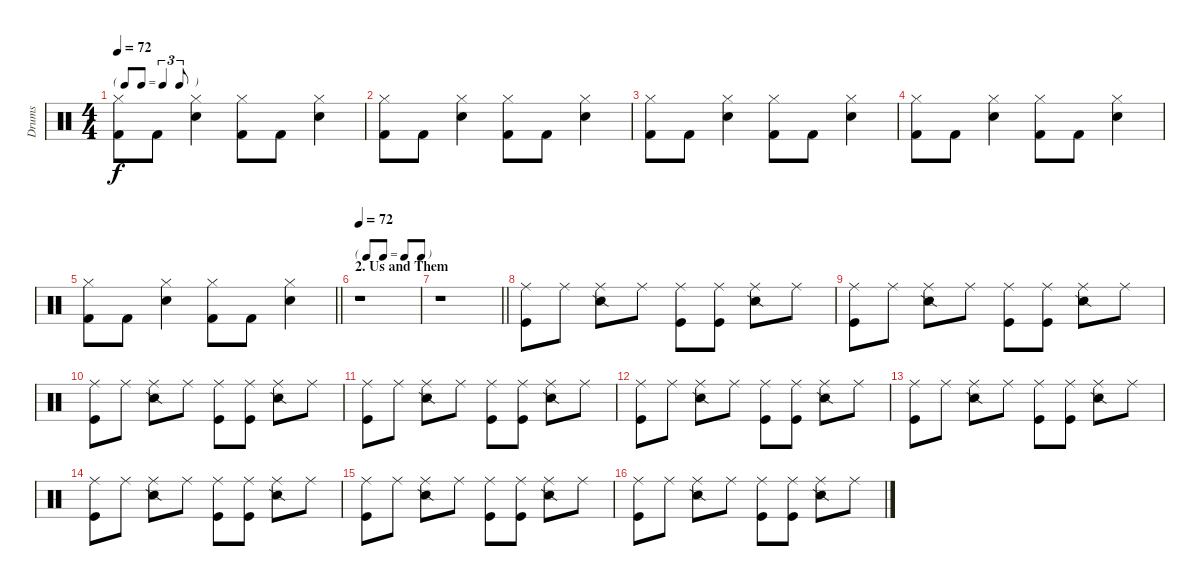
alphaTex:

\track ("Drums" "Drums") {instrument percussion}
\staff {score}
\articulation defaults
\ts (4 4)
\tf triplet8th
\tempo 72
\clef neutral
\ks c
("Hi-Hat (closed)" "Kick (hit) 2").8{dy f} "Kick (hit) 2".8 ("Hi-Hat (closed)" "Electric Snare (hit)").4 ("Hi-Hat (closed)" "Kick (hit) 2").8 "Kick (hit) 2".8 ("Hi-Hat (closed)" "Electric Snare (hit)").4 |
("Hi-Hat (closed)" "Kick (hit) 2").8{volume 0} "Kick (hit) 2".8 ("Hi-Hat (closed)" "Electric Snare (hit)").4 ("Hi-Hat (closed)" "Kick (hit) 2").8 "Kick (hit) 2".8 ("Hi-Hat (closed)" "Electric Snare (hit)").4 |
("Hi-Hat (closed)" "Kick (hit) 2").8 "Kick (hit) 2".8 ("Hi-Hat (closed)" "Electric Snare (hit)").4 ("Hi-Hat (closed)" "Kick (hit) 2").8 "Kick (hit) 2".8 ("Hi-Hat (closed)" "Electric Snare (hit)").4 |
("Hi-Hat (closed)" "Kick (hit) 2").8 "Kick (hit) 2".8 ("Hi-Hat (closed)" "Electric Snare (hit)").4 ("Hi-Hat (closed)" "Kick (hit) 2").8 "Kick (hit) 2".8 ("Hi-Hat (closed)" "Electric Snare (hit)").4 |
\barLineRight lightlight
("Hi-Hat (closed)" "Kick (hit) 2").8 "Kick (hit) 2".8 ("Hi-Hat (closed)" "Electric Snare (hit)").4 ("Hi-Hat (closed)" "Kick (hit) 2").8 "Kick (hit) 2".8 ("Hi-Hat (closed)" "Electric Snare (hit)").4 |
\tf none
\section ("" "2. Us and Them")
\tempo 72
r.1{volume 10} |
\barLineRight lightlight
r.1 |
("Ride (middle)" "Kick (hit)").8 "Ride (middle)".8 ("Ride (middle)" "Snare (side stick) 2").8 "Ride (middle)".8 ("Ride (middle)" "Kick (hit)").8 ("Ride (middle)" "Kick (hit)").8 ("Ride (middle)" "Snare (side stick) 2").8 "Ride (middle)".8 |
("Ride (middle)" "Kick (hit)").8 "Ride (middle)".8 ("Ride (middle)" "Snare (side stick) 2").8 "Ride (middle)".8 ("Ride (middle)" "Kick (hit)").8 ("Ride (middle)" "Kick (hit)").8 ("Ride (middle)" "Snare (side stick) 2").8 "Ride (middle)".8 |
("Ride (middle)" "Kick (hit)").8 "Ride (middle)".8 ("Ride (middle)" "Snare (side stick) 2").8 "Ride (middle)".8 ("Ride (middle)" "Kick (hit)").8 ("Ride (middle)" "Kick (hit)").8 ("Ride (middle)" "Snare (side stick) 2").8 "Ride (middle)".8 |
("Ride (middle)" "Kick (hit)").8 "Ride (middle)".8 ("Ride (middle)" "Snare (side stick) 2").8 "Ride (middle)".8 ("Ride (middle)" "Kick (hit)").8 ("Ride (middle)" "Kick (hit)").8 ("Ride (middle)" "Snare (side stick) 2").8 "Ride (middle)".8 |
("Ride (middle)" "Kick (hit)").8 "Ride (middle)".8 ("Ride (middle)" "Snare (side stick) 2").8 "Ride (middle)".8 ("Ride (middle)" "Kick (hit)").8 ("Ride (middle)" "Kick (hit)").8 ("Ride (middle)" "Snare (side stick) 2").8 "Ride (middle)".8 |
("Ride (middle)" "Kick (hit)").8 "Ride (middle)".8 ("Ride (middle)" "Snare (side stick) 2").8 "Ride (middle)".8 ("Ride (middle)" "Kick (hit)").8 ("Ride (middle)" "Kick (hit)").8 ("Ride (middle)" "Snare (side stick) 2").8 "Ride (middle)".8 |
("Ride (middle)" "Kick (hit)").8 "Ride (middle)".8 ("Ride (middle)" "Snare (side stick) 2").8 "Ride (middle)".8 ("Ride (middle)" "Kick (hit)").8 ("Ride (middle)" "Kick (hit)").8 ("Ride (middle)" "Snare (side stick) 2").8 "Ride (middle)".8 |
("Ride (middle)" "Kick (hit)").8 "Ride (middle)".8 ("Ride (middle)" "Snare (side stick) 2").8 "Ride (middle)".8 ("Ride (middle)" "Kick (hit)").8 ("Ride (middle)" "Kick (hit)").8 ("Ride (middle)" "Snare (side stick) 2").8 "Ride (middle)".8 |
("Ride (middle)" "Kick (hit)").8 "Ride (middle)".8 ("Ride (middle)" "Snare (side stick) 2").8 "Ride (middle)".8 ("Ride (middle)" "Kick (hit)").8 ("Ride (middle)" "Kick (hit)").8 ("Ride (middle)" "Snare (side stick) 2").8 "Ride (middle)".8
